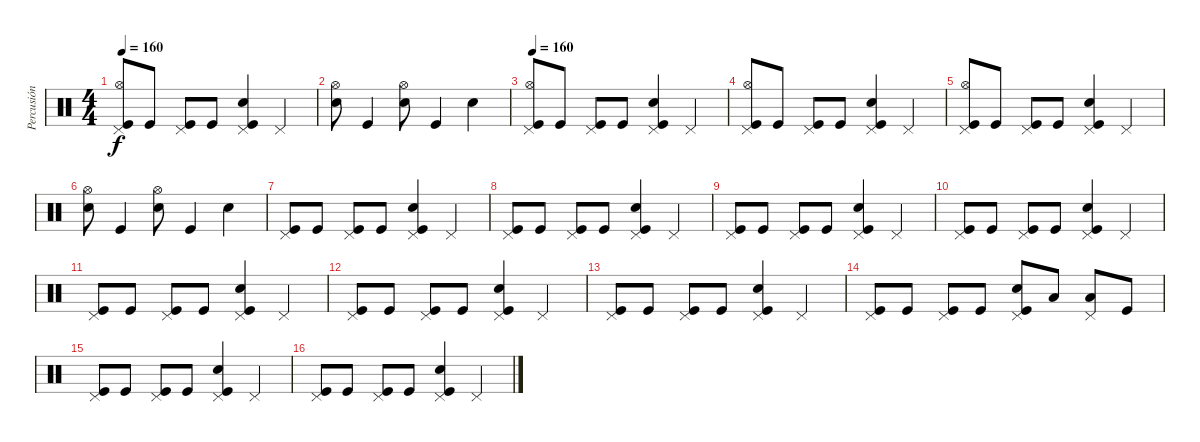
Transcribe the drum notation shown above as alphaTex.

\track ("Percusión" "Percusión") {instrument percussion}
\staff {score}
\articulation defaults
\ts (4 4)
\tempo 160
\clef neutral
\ks c
("Kick (hit)" "Hi-Hat (open)" "Pedal Hi-Hat (hit)").8{dy f} "Kick (hit)".8 ("Kick (hit)" "Pedal Hi-Hat (hit)").8 "Kick (hit)".8 ("Kick (hit)" "Snare (hit) 2" "Pedal Hi-Hat (hit)").4 "Pedal Hi-Hat (hit)".4 |
("Snare (hit) 2" "Hi-Hat (open)").8 "Kick (hit)".4 ("Snare (hit) 2" "Hi-Hat (open)").8 "Kick (hit)".4 "Snare (hit) 2".4 |
\tempo 160
("Kick (hit)" "Hi-Hat (open)" "Pedal Hi-Hat (hit)").8 "Kick (hit)".8 ("Kick (hit)" "Pedal Hi-Hat (hit)").8 "Kick (hit)".8 ("Kick (hit)" "Snare (hit) 2" "Pedal Hi-Hat (hit)").4 "Pedal Hi-Hat (hit)".4 |
("Kick (hit)" "Hi-Hat (open)" "Pedal Hi-Hat (hit)").8 "Kick (hit)".8 ("Kick (hit)" "Pedal Hi-Hat (hit)").8 "Kick (hit)".8 ("Kick (hit)" "Snare (hit) 2" "Pedal Hi-Hat (hit)").4 "Pedal Hi-Hat (hit)".4 |
("Kick (hit)" "Hi-Hat (open)" "Pedal Hi-Hat (hit)").8 "Kick (hit)".8 ("Kick (hit)" "Pedal Hi-Hat (hit)").8 "Kick (hit)".8 ("Kick (hit)" "Snare (hit) 2" "Pedal Hi-Hat (hit)").4 "Pedal Hi-Hat (hit)".4 |
("Snare (hit) 2" "Hi-Hat (open)").8 "Kick (hit)".4 ("Snare (hit) 2" "Hi-Hat (open)").8 "Kick (hit)".4 "Snare (hit) 2".4 |
("Kick (hit)" "Pedal Hi-Hat (hit)").8 "Kick (hit)".8 ("Kick (hit)" "Pedal Hi-Hat (hit)").8 "Kick (hit)".8 ("Kick (hit)" "Pedal Hi-Hat (hit)" "Snare (hit) 2").4 "Pedal Hi-Hat (hit)".4 |
("Kick (hit)" "Pedal Hi-Hat (hit)").8 "Kick (hit)".8 ("Kick (hit)" "Pedal Hi-Hat (hit)").8 "Kick (hit)".8 ("Kick (hit)" "Pedal Hi-Hat (hit)" "Snare (hit) 2").4 "Pedal Hi-Hat (hit)".4 |
("Kick (hit)" "Pedal Hi-Hat (hit)").8 "Kick (hit)".8 ("Kick (hit)" "Pedal Hi-Hat (hit)").8 "Kick (hit)".8 ("Kick (hit)" "Pedal Hi-Hat (hit)" "Snare (hit) 2").4 "Pedal Hi-Hat (hit)".4 |
("Kick (hit)" "Pedal Hi-Hat (hit)").8 "Kick (hit)".8 ("Kick (hit)" "Pedal Hi-Hat (hit)").8 "Kick (hit)".8 ("Kick (hit)" "Pedal Hi-Hat (hit)" "Snare (hit) 2").4 "Pedal Hi-Hat (hit)".4 |
("Kick (hit)" "Pedal Hi-Hat (hit)").8 "Kick (hit)".8 ("Kick (hit)" "Pedal Hi-Hat (hit)").8 "Kick (hit)".8 ("Kick (hit)" "Pedal Hi-Hat (hit)" "Snare (hit) 2").4 "Pedal Hi-Hat (hit)".4 |
("Kick (hit)" "Pedal Hi-Hat (hit)").8 "Kick (hit)".8 ("Kick (hit)" "Pedal Hi-Hat (hit)").8 "Kick (hit)".8 ("Kick (hit)" "Pedal Hi-Hat (hit)" "Snare (hit) 2").4 "Pedal Hi-Hat (hit)".4 |
("Kick (hit)" "Pedal Hi-Hat (hit)").8 "Kick (hit)".8 ("Kick (hit)" "Pedal Hi-Hat (hit)").8 "Kick (hit)".8 ("Kick (hit)" "Pedal Hi-Hat (hit)" "Snare (hit) 2").4 "Pedal Hi-Hat (hit)".4 |
("Kick (hit)" "Pedal Hi-Hat (hit)").8 "Kick (hit)".8 ("Kick (hit)" "Pedal Hi-Hat (hit)").8 "Kick (hit)".8 ("Kick (hit)" "Pedal Hi-Hat (hit)" "Snare (hit) 2").8 "Low Tom (hit)".8 ("Low Floor Tom (hit)" "Pedal Hi-Hat (hit)").8 "Kick (hit)".8 |
("Kick (hit)" "Pedal Hi-Hat (hit)").8 "Kick (hit)".8 ("Kick (hit)" "Pedal Hi-Hat (hit)").8 "Kick (hit)".8 ("Kick (hit)" "Pedal Hi-Hat (hit)" "Snare (hit) 2").4 "Pedal Hi-Hat (hit)".4 |
("Kick (hit)" "Pedal Hi-Hat (hit)").8 "Kick (hit)".8 ("Kick (hit)" "Pedal Hi-Hat (hit)").8 "Kick (hit)".8 ("Kick (hit)" "Pedal Hi-Hat (hit)" "Snare (hit) 2").4 "Pedal Hi-Hat (hit)".4
